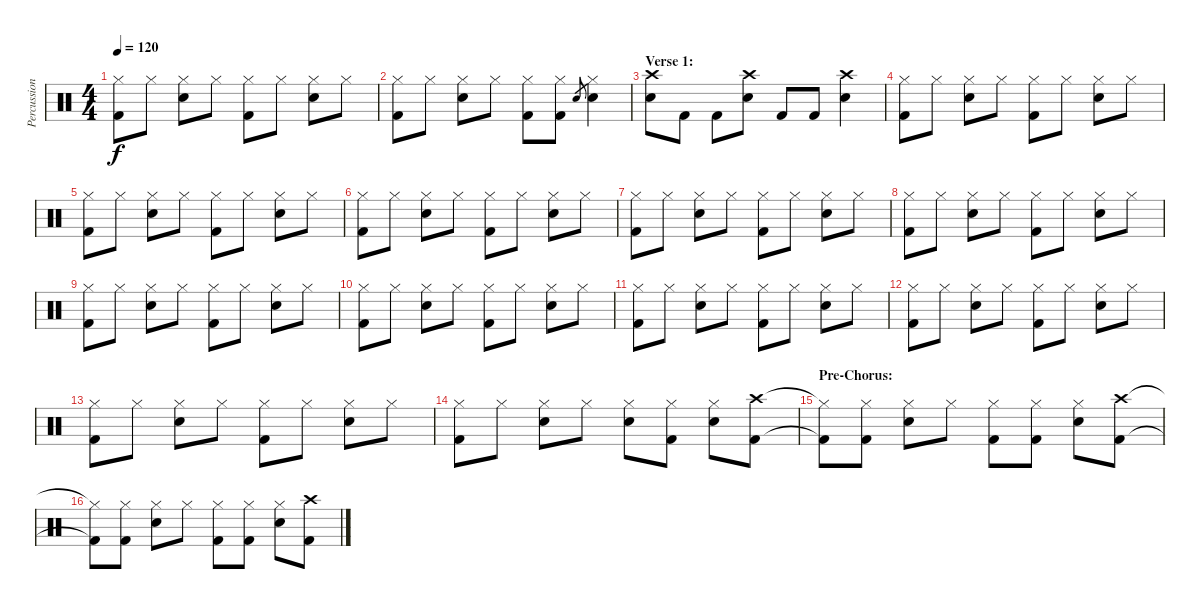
\track ("Percussion" "Percussion") {instrument percussion}
\staff {score}
\articulation defaults
\ts (4 4)
\tempo 120
\clef neutral
\ks c
("Hi-Hat (closed)" "Kick (hit) 2").8{dy f} "Hi-Hat (closed)".8 ("Hi-Hat (closed)" "Snare (hit) 2").8 "Hi-Hat (closed)".8 ("Hi-Hat (closed)" "Kick (hit) 2").8 "Hi-Hat (closed)".8 ("Hi-Hat (closed)" "Snare (hit) 2").8 "Hi-Hat (closed)".8 |
("Hi-Hat (closed)" "Kick (hit) 2").8 "Hi-Hat (closed)".8 ("Hi-Hat (closed)" "Snare (hit) 2").8 "Hi-Hat (closed)".8 ("Hi-Hat (closed)" "Kick (hit) 2").8 ("Hi-Hat (closed)" "Kick (hit) 2").8 "Snare (hit) 2".8{gr} ("Hi-Hat (closed)" "Snare (hit) 2").4 |
\section ("" "Verse 1:")
("Crash high (hit)" "Snare (hit) 2").8 "Kick (hit) 2".8 "Kick (hit) 2".8 ("Crash high (hit)" "Snare (hit) 2").8 "Kick (hit) 2".8 "Kick (hit) 2".8 ("Crash high (hit)" "Snare (hit) 2").4 |
("Hi-Hat (closed)" "Kick (hit) 2").8 "Hi-Hat (closed)".8 ("Hi-Hat (closed)" "Snare (hit) 2").8 "Hi-Hat (closed)".8 ("Hi-Hat (closed)" "Kick (hit) 2").8 "Hi-Hat (closed)".8 ("Hi-Hat (closed)" "Snare (hit) 2").8 "Hi-Hat (closed)".8 |
("Hi-Hat (closed)" "Kick (hit) 2").8 "Hi-Hat (closed)".8 ("Hi-Hat (closed)" "Snare (hit) 2").8 "Hi-Hat (closed)".8 ("Hi-Hat (closed)" "Kick (hit) 2").8 "Hi-Hat (closed)".8 ("Hi-Hat (closed)" "Snare (hit) 2").8 "Hi-Hat (closed)".8 |
("Hi-Hat (closed)" "Kick (hit) 2").8 "Hi-Hat (closed)".8 ("Hi-Hat (closed)" "Snare (hit) 2").8 "Hi-Hat (closed)".8 ("Hi-Hat (closed)" "Kick (hit) 2").8 "Hi-Hat (closed)".8 ("Hi-Hat (closed)" "Snare (hit) 2").8 "Hi-Hat (closed)".8 |
("Hi-Hat (closed)" "Kick (hit) 2").8 "Hi-Hat (closed)".8 ("Hi-Hat (closed)" "Snare (hit) 2").8 "Hi-Hat (closed)".8 ("Hi-Hat (closed)" "Kick (hit) 2").8 "Hi-Hat (closed)".8 ("Hi-Hat (closed)" "Snare (hit) 2").8 "Hi-Hat (closed)".8 |
("Hi-Hat (closed)" "Kick (hit) 2").8 "Hi-Hat (closed)".8 ("Hi-Hat (closed)" "Snare (hit) 2").8 "Hi-Hat (closed)".8 ("Hi-Hat (closed)" "Kick (hit) 2").8 "Hi-Hat (closed)".8 ("Hi-Hat (closed)" "Snare (hit) 2").8 "Hi-Hat (closed)".8 |
("Hi-Hat (closed)" "Kick (hit) 2").8 "Hi-Hat (closed)".8 ("Hi-Hat (closed)" "Snare (hit) 2").8 "Hi-Hat (closed)".8 ("Hi-Hat (closed)" "Kick (hit) 2").8 "Hi-Hat (closed)".8 ("Hi-Hat (closed)" "Snare (hit) 2").8 "Hi-Hat (closed)".8 |
("Hi-Hat (closed)" "Kick (hit) 2").8 "Hi-Hat (closed)".8 ("Hi-Hat (closed)" "Snare (hit) 2").8 "Hi-Hat (closed)".8 ("Hi-Hat (closed)" "Kick (hit) 2").8 "Hi-Hat (closed)".8 ("Hi-Hat (closed)" "Snare (hit) 2").8 "Hi-Hat (closed)".8 |
("Hi-Hat (closed)" "Kick (hit) 2").8 "Hi-Hat (closed)".8 ("Hi-Hat (closed)" "Snare (hit) 2").8 "Hi-Hat (closed)".8 ("Hi-Hat (closed)" "Kick (hit) 2").8 "Hi-Hat (closed)".8 ("Hi-Hat (closed)" "Snare (hit) 2").8 "Hi-Hat (closed)".8 |
("Hi-Hat (closed)" "Kick (hit) 2").8 "Hi-Hat (closed)".8 ("Hi-Hat (closed)" "Snare (hit) 2").8 "Hi-Hat (closed)".8 ("Hi-Hat (closed)" "Kick (hit) 2").8 "Hi-Hat (closed)".8 ("Hi-Hat (closed)" "Snare (hit) 2").8 "Hi-Hat (closed)".8 |
("Hi-Hat (closed)" "Kick (hit) 2").8 "Hi-Hat (closed)".8 ("Hi-Hat (closed)" "Snare (hit) 2").8 "Hi-Hat (closed)".8 ("Hi-Hat (closed)" "Kick (hit) 2").8 "Hi-Hat (closed)".8 ("Hi-Hat (closed)" "Snare (hit) 2").8 "Hi-Hat (closed)".8 |
("Hi-Hat (closed)" "Kick (hit) 2").8 "Hi-Hat (closed)".8 ("Hi-Hat (closed)" "Snare (hit) 2").8 "Hi-Hat (closed)".8 ("Hi-Hat (closed)" "Snare (hit) 2").8 ("Hi-Hat (closed)" "Kick (hit) 2").8 ("Hi-Hat (closed)" "Snare (hit) 2").8 ("Crash high (hit)" "Kick (hit) 2").8 |
\section ("" "Pre-Chorus:")
("Hi-Hat (closed)"{t} "Kick (hit) 2"{t}).8 ("Hi-Hat (closed)" "Kick (hit) 2").8 ("Hi-Hat (closed)" "Snare (hit) 2").8 "Hi-Hat (closed)".8 ("Hi-Hat (closed)" "Kick (hit) 2").8 ("Hi-Hat (closed)" "Kick (hit) 2").8 ("Hi-Hat (closed)" "Snare (hit) 2").8 ("Crash high (hit)" "Kick (hit) 2").8 |
("Hi-Hat (closed)"{t} "Kick (hit) 2"{t}).8 ("Hi-Hat (closed)" "Kick (hit) 2").8 ("Hi-Hat (closed)" "Snare (hit) 2").8 "Hi-Hat (closed)".8 ("Hi-Hat (closed)" "Kick (hit) 2").8 ("Hi-Hat (closed)" "Kick (hit) 2").8 ("Hi-Hat (closed)" "Snare (hit) 2").8 ("Crash high (hit)" "Kick (hit) 2").8
